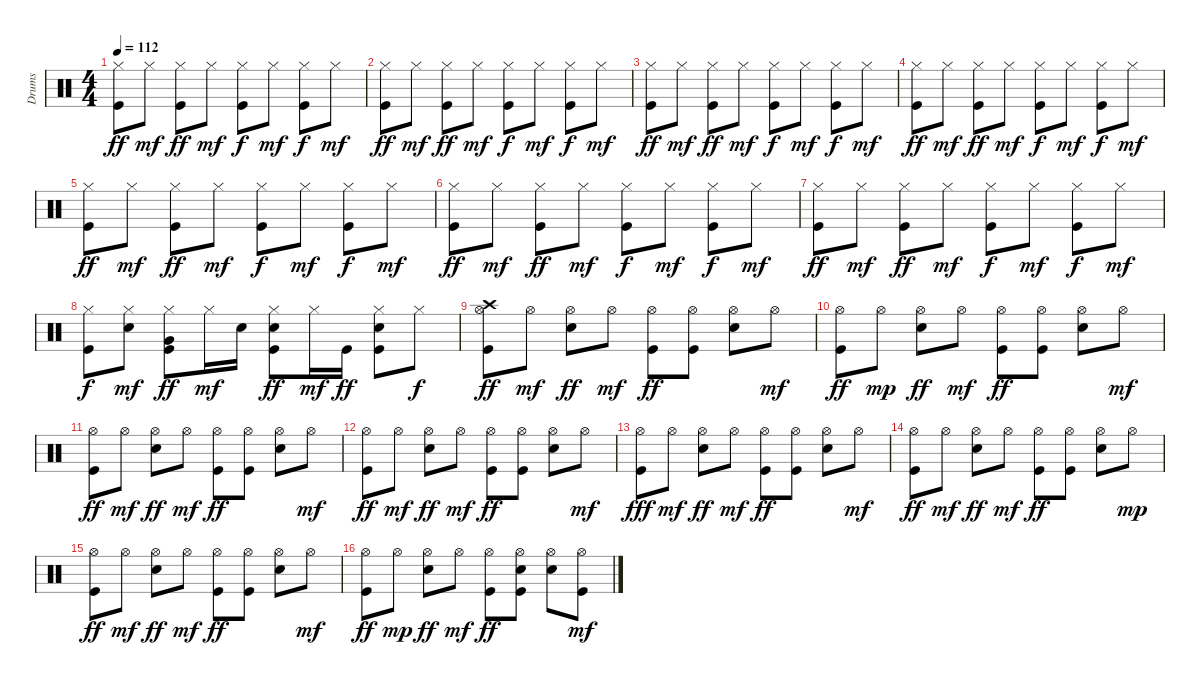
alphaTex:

\track ("Drums" "Drums") {instrument percussion}
\staff {score}
\articulation defaults
\ts (4 4)
\tempo 112
\clef neutral
\ks c
("Kick (hit)" "Hi-Hat (closed)").8{dy ff} "Hi-Hat (closed)".8{dy mf} ("Kick (hit)" "Hi-Hat (closed)").8{dy ff} "Hi-Hat (closed)".8{dy mf} ("Kick (hit)" "Hi-Hat (closed)").8{dy f} "Hi-Hat (closed)".8{dy mf} ("Kick (hit)" "Hi-Hat (closed)").8{dy f} "Hi-Hat (closed)".8{dy mf} |
("Kick (hit)" "Hi-Hat (closed)").8{dy ff} "Hi-Hat (closed)".8{dy mf} ("Kick (hit)" "Hi-Hat (closed)").8{dy ff} "Hi-Hat (closed)".8{dy mf} ("Kick (hit)" "Hi-Hat (closed)").8{dy f} "Hi-Hat (closed)".8{dy mf} ("Kick (hit)" "Hi-Hat (closed)").8{dy f} "Hi-Hat (closed)".8{dy mf} |
("Kick (hit)" "Hi-Hat (closed)").8{dy ff} "Hi-Hat (closed)".8{dy mf} ("Kick (hit)" "Hi-Hat (closed)").8{dy ff} "Hi-Hat (closed)".8{dy mf} ("Kick (hit)" "Hi-Hat (closed)").8{dy f} "Hi-Hat (closed)".8{dy mf} ("Kick (hit)" "Hi-Hat (closed)").8{dy f} "Hi-Hat (closed)".8{dy mf} |
("Kick (hit)" "Hi-Hat (closed)").8{dy ff} "Hi-Hat (closed)".8{dy mf} ("Kick (hit)" "Hi-Hat (closed)").8{dy ff} "Hi-Hat (closed)".8{dy mf} ("Kick (hit)" "Hi-Hat (closed)").8{dy f} "Hi-Hat (closed)".8{dy mf} ("Kick (hit)" "Hi-Hat (closed)").8{dy f} "Hi-Hat (closed)".8{dy mf} |
("Kick (hit)" "Hi-Hat (closed)").8{dy ff} "Hi-Hat (closed)".8{dy mf} ("Kick (hit)" "Hi-Hat (closed)").8{dy ff} "Hi-Hat (closed)".8{dy mf} ("Kick (hit)" "Hi-Hat (closed)").8{dy f} "Hi-Hat (closed)".8{dy mf} ("Kick (hit)" "Hi-Hat (closed)").8{dy f} "Hi-Hat (closed)".8{dy mf} |
("Kick (hit)" "Hi-Hat (closed)").8{dy ff} "Hi-Hat (closed)".8{dy mf} ("Kick (hit)" "Hi-Hat (closed)").8{dy ff} "Hi-Hat (closed)".8{dy mf} ("Kick (hit)" "Hi-Hat (closed)").8{dy f} "Hi-Hat (closed)".8{dy mf} ("Kick (hit)" "Hi-Hat (closed)").8{dy f} "Hi-Hat (closed)".8{dy mf} |
("Kick (hit)" "Hi-Hat (closed)").8{dy ff} "Hi-Hat (closed)".8{dy mf} ("Kick (hit)" "Hi-Hat (closed)").8{dy ff} "Hi-Hat (closed)".8{dy mf} ("Kick (hit)" "Hi-Hat (closed)").8{dy f} "Hi-Hat (closed)".8{dy mf} ("Kick (hit)" "Hi-Hat (closed)").8{dy f} "Hi-Hat (closed)".8{dy mf} |
("Kick (hit)" "Hi-Hat (closed)").8{dy f} ("Electric Snare (hit)" "Hi-Hat (closed)").8{dy mf} ("Kick (hit)" "Hi-Hat (closed)" "Very Low Tom (hit)").8{dy ff} "Hi-Hat (closed)".16{dy mf} "Electric Snare (hit)".16 ("Kick (hit)" "Electric Snare (hit)" "Hi-Hat (closed)").8{dy ff} "Hi-Hat (closed)".16{dy mf} "Kick (hit)".16{dy ff} ("Kick (hit)" "Electric Snare (hit)" "Hi-Hat (closed)").8 "Hi-Hat (closed)".8{dy f} |
("Kick (hit)" "Hi-Hat (open)" "Crash high (hit)").8{dy ff} "Hi-Hat (open)".8{dy mf} ("Electric Snare (hit)" "Hi-Hat (open)").8{dy ff} "Hi-Hat (open)".8{dy mf} ("Kick (hit)" "Hi-Hat (open)").8{dy ff} ("Kick (hit)" "Hi-Hat (open)").8 ("Electric Snare (hit)" "Hi-Hat (open)").8 "Hi-Hat (open)".8{dy mf} |
("Kick (hit)" "Hi-Hat (open)").8{dy ff} "Hi-Hat (open)".8{dy mp} ("Electric Snare (hit)" "Hi-Hat (open)").8{dy ff} "Hi-Hat (open)".8{dy mf} ("Kick (hit)" "Hi-Hat (open)").8{dy ff} ("Kick (hit)" "Hi-Hat (open)").8 ("Electric Snare (hit)" "Hi-Hat (open)").8 "Hi-Hat (open)".8{dy mf} |
("Kick (hit)" "Hi-Hat (open)").8{dy ff} "Hi-Hat (open)".8{dy mf} ("Electric Snare (hit)" "Hi-Hat (open)").8{dy ff} "Hi-Hat (open)".8{dy mf} ("Kick (hit)" "Hi-Hat (open)").8{dy ff} ("Kick (hit)" "Hi-Hat (open)").8 ("Electric Snare (hit)" "Hi-Hat (open)").8 "Hi-Hat (open)".8{dy mf} |
("Kick (hit)" "Hi-Hat (open)").8{dy ff} "Hi-Hat (open)".8{dy mf} ("Electric Snare (hit)" "Hi-Hat (open)").8{dy ff} "Hi-Hat (open)".8{dy mf} ("Kick (hit)" "Hi-Hat (open)").8{dy ff} ("Kick (hit)" "Hi-Hat (open)").8 ("Electric Snare (hit)" "Hi-Hat (open)").8 "Hi-Hat (open)".8{dy mf} |
("Kick (hit)" "Hi-Hat (open)").8{dy fff} "Hi-Hat (open)".8{dy mf} ("Electric Snare (hit)" "Hi-Hat (open)").8{dy ff} "Hi-Hat (open)".8{dy mf} ("Kick (hit)" "Hi-Hat (open)").8{dy ff} ("Kick (hit)" "Hi-Hat (open)").8 ("Electric Snare (hit)" "Hi-Hat (open)").8 "Hi-Hat (open)".8{dy mf} |
("Kick (hit)" "Hi-Hat (open)").8{dy ff} "Hi-Hat (open)".8{dy mf} ("Electric Snare (hit)" "Hi-Hat (open)").8{dy ff} "Hi-Hat (open)".8{dy mf} ("Kick (hit)" "Hi-Hat (open)").8{dy ff} ("Kick (hit)" "Hi-Hat (open)").8 ("Electric Snare (hit)" "Hi-Hat (open)").8 "Hi-Hat (open)".8{dy mp} |
("Kick (hit)" "Hi-Hat (open)").8{dy ff} "Hi-Hat (open)".8{dy mf} ("Electric Snare (hit)" "Hi-Hat (open)").8{dy ff} "Hi-Hat (open)".8{dy mf} ("Kick (hit)" "Hi-Hat (open)").8{dy ff} ("Kick (hit)" "Hi-Hat (open)").8 ("Electric Snare (hit)" "Hi-Hat (open)").8 "Hi-Hat (open)".8{dy mf} |
("Kick (hit)" "Hi-Hat (open)").8{dy ff} "Hi-Hat (open)".8{dy mp} ("Electric Snare (hit)" "Hi-Hat (open)").8{dy ff} "Hi-Hat (open)".8{dy mf} ("Kick (hit)" "Hi-Hat (open)").8{dy ff} ("Kick (hit)" "Electric Snare (hit)" "Hi-Hat (open)").8 ("Electric Snare (hit)" "Hi-Hat (open)").8 ("Kick (hit)" "Hi-Hat (open)").8{dy mf}
